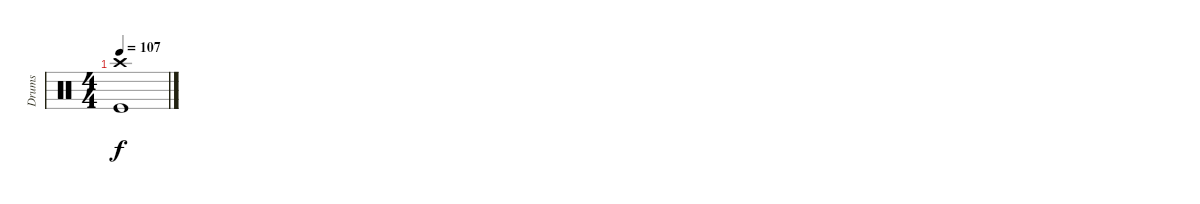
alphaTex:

\track ("Drums" "Drums") {instrument percussion}
\staff
\articulation defaults
\ts (4 4)
\tempo 107
\clef neutral
\ks c
("Crash high (hit)" "Kick (hit)").1{dy f}
